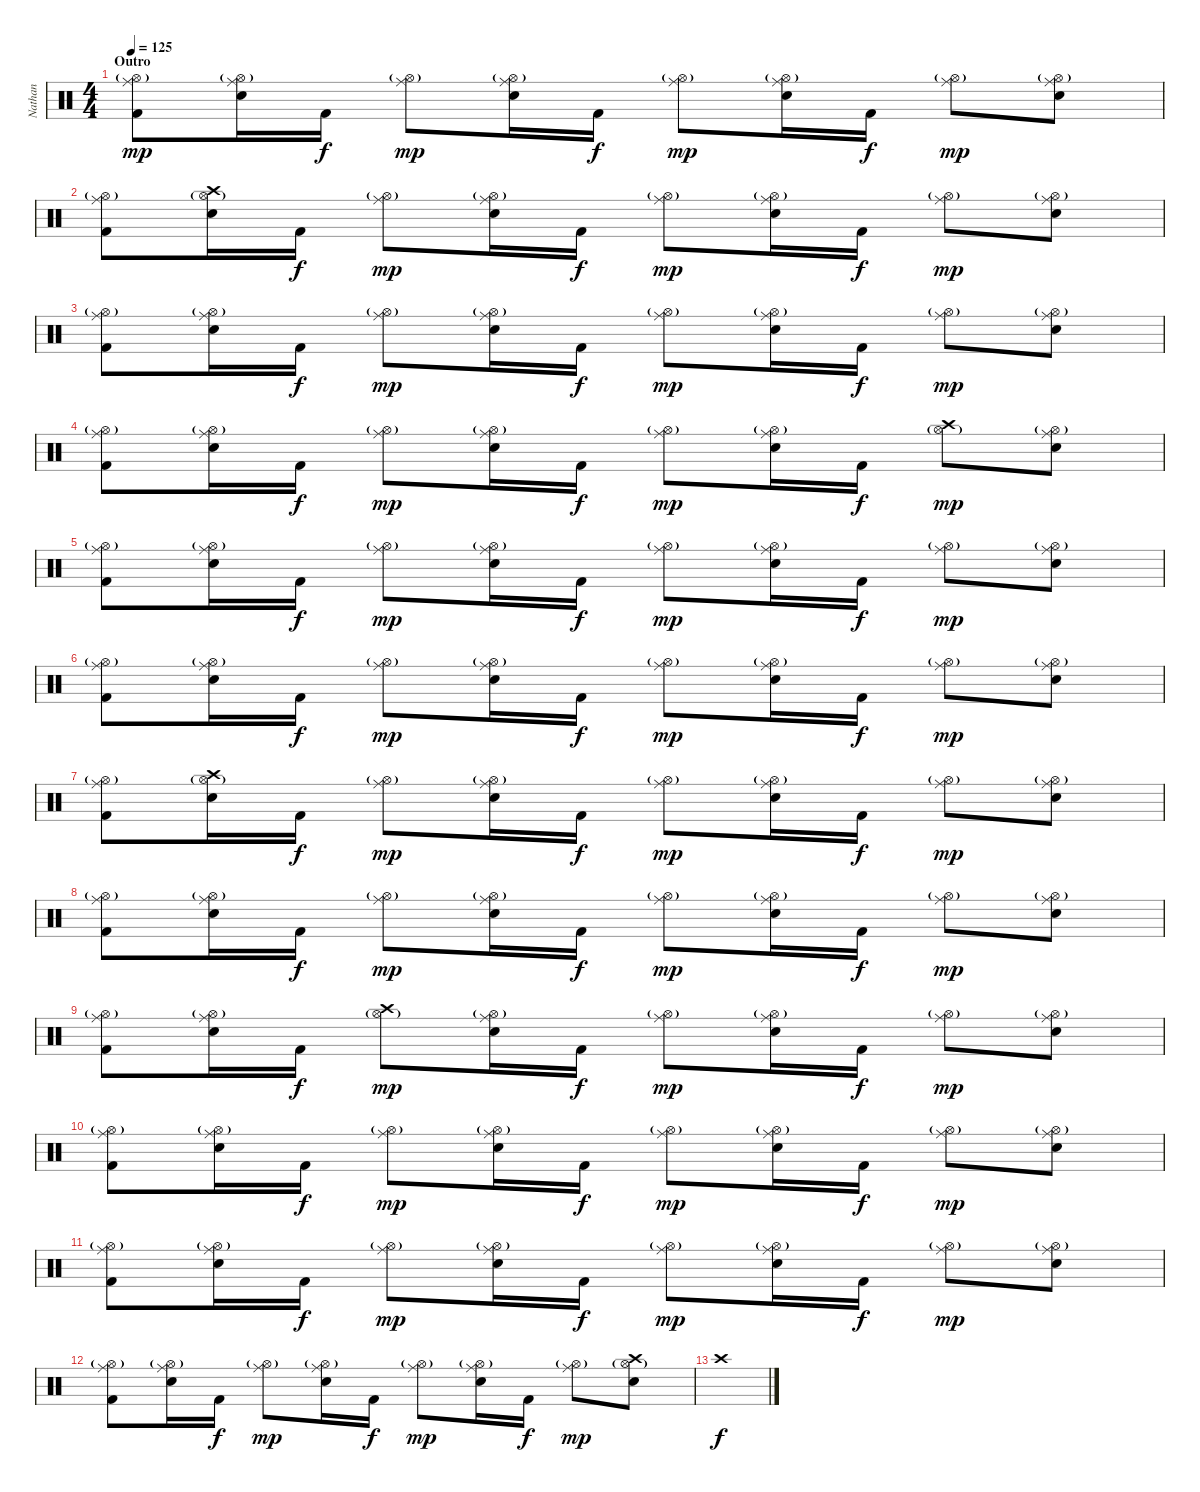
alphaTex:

\track ("Nathan" "Nathan") {instrument percussion}
\staff {score}
\articulation defaults
\ts (4 4)
\section ("" "Outro")
\tempo 125
\clef neutral
\ks c
("Ride (middle)" "Hi-Hat (open)"{g} "Kick (hit) 2").8{dy mp} ("Ride (middle)" "Hi-Hat (open)"{g} "Electric Snare (hit)").16 "Kick (hit) 2".16{dy f} ("Ride (middle)" "Hi-Hat (open)"{g}).8{dy mp} ("Ride (middle)" "Hi-Hat (open)"{g} "Electric Snare (hit)").16 "Kick (hit) 2".16{dy f} ("Ride (middle)" "Hi-Hat (open)"{g}).8{dy mp} ("Ride (middle)" "Hi-Hat (open)"{g} "Electric Snare (hit)").16 "Kick (hit) 2".16{dy f} ("Ride (middle)" "Hi-Hat (open)"{g}).8{dy mp} ("Ride (middle)" "Hi-Hat (open)"{g} "Electric Snare (hit)").8 |
("Ride (middle)" "Hi-Hat (open)"{g} "Kick (hit) 2").8 ("Crash high (hit)" "Hi-Hat (open)"{g} "Electric Snare (hit)").16 "Kick (hit) 2".16{dy f} ("Ride (middle)" "Hi-Hat (open)"{g}).8{dy mp} ("Ride (middle)" "Hi-Hat (open)"{g} "Electric Snare (hit)").16 "Kick (hit) 2".16{dy f} ("Ride (middle)" "Hi-Hat (open)"{g}).8{dy mp} ("Ride (middle)" "Hi-Hat (open)"{g} "Electric Snare (hit)").16 "Kick (hit) 2".16{dy f} ("Ride (middle)" "Hi-Hat (open)"{g}).8{dy mp} ("Ride (middle)" "Hi-Hat (open)"{g} "Electric Snare (hit)").8 |
("Ride (middle)" "Hi-Hat (open)"{g} "Kick (hit) 2").8 ("Ride (middle)" "Hi-Hat (open)"{g} "Electric Snare (hit)").16 "Kick (hit) 2".16{dy f} ("Ride (middle)" "Hi-Hat (open)"{g}).8{dy mp} ("Ride (middle)" "Hi-Hat (open)"{g} "Electric Snare (hit)").16 "Kick (hit) 2".16{dy f} ("Ride (middle)" "Hi-Hat (open)"{g}).8{dy mp} ("Ride (middle)" "Hi-Hat (open)"{g} "Electric Snare (hit)").16 "Kick (hit) 2".16{dy f} ("Ride (middle)" "Hi-Hat (open)"{g}).8{dy mp} ("Ride (middle)" "Hi-Hat (open)"{g} "Electric Snare (hit)").8 |
("Ride (middle)" "Hi-Hat (open)"{g} "Kick (hit) 2").8 ("Ride (middle)" "Hi-Hat (open)"{g} "Electric Snare (hit)").16 "Kick (hit) 2".16{dy f} ("Ride (middle)" "Hi-Hat (open)"{g}).8{dy mp} ("Ride (middle)" "Hi-Hat (open)"{g} "Electric Snare (hit)").16 "Kick (hit) 2".16{dy f} ("Ride (middle)" "Hi-Hat (open)"{g}).8{dy mp} ("Ride (middle)" "Hi-Hat (open)"{g} "Electric Snare (hit)").16 "Kick (hit) 2".16{dy f} ("Crash high (hit)" "Hi-Hat (open)"{g}).8{dy mp} ("Ride (middle)" "Hi-Hat (open)"{g} "Electric Snare (hit)").8 |
("Ride (middle)" "Hi-Hat (open)"{g} "Kick (hit) 2").8 ("Ride (middle)" "Hi-Hat (open)"{g} "Electric Snare (hit)").16 "Kick (hit) 2".16{dy f} ("Ride (middle)" "Hi-Hat (open)"{g}).8{dy mp} ("Ride (middle)" "Hi-Hat (open)"{g} "Electric Snare (hit)").16 "Kick (hit) 2".16{dy f} ("Ride (middle)" "Hi-Hat (open)"{g}).8{dy mp} ("Ride (middle)" "Hi-Hat (open)"{g} "Electric Snare (hit)").16 "Kick (hit) 2".16{dy f} ("Ride (middle)" "Hi-Hat (open)"{g}).8{dy mp} ("Ride (middle)" "Hi-Hat (open)"{g} "Electric Snare (hit)").8 |
("Ride (middle)" "Hi-Hat (open)"{g} "Kick (hit) 2").8 ("Ride (middle)" "Hi-Hat (open)"{g} "Electric Snare (hit)").16 "Kick (hit) 2".16{dy f} ("Ride (middle)" "Hi-Hat (open)"{g}).8{dy mp} ("Ride (middle)" "Hi-Hat (open)"{g} "Electric Snare (hit)").16 "Kick (hit) 2".16{dy f} ("Ride (middle)" "Hi-Hat (open)"{g}).8{dy mp} ("Ride (middle)" "Hi-Hat (open)"{g} "Electric Snare (hit)").16 "Kick (hit) 2".16{dy f} ("Ride (middle)" "Hi-Hat (open)"{g}).8{dy mp} ("Ride (middle)" "Hi-Hat (open)"{g} "Electric Snare (hit)").8 |
("Ride (middle)" "Hi-Hat (open)"{g} "Kick (hit) 2").8 ("Crash high (hit)" "Hi-Hat (open)"{g} "Electric Snare (hit)").16 "Kick (hit) 2".16{dy f} ("Ride (middle)" "Hi-Hat (open)"{g}).8{dy mp} ("Ride (middle)" "Hi-Hat (open)"{g} "Electric Snare (hit)").16 "Kick (hit) 2".16{dy f} ("Ride (middle)" "Hi-Hat (open)"{g}).8{dy mp} ("Ride (middle)" "Hi-Hat (open)"{g} "Electric Snare (hit)").16 "Kick (hit) 2".16{dy f} ("Ride (middle)" "Hi-Hat (open)"{g}).8{dy mp} ("Ride (middle)" "Hi-Hat (open)"{g} "Electric Snare (hit)").8 |
("Ride (middle)" "Hi-Hat (open)"{g} "Kick (hit) 2").8 ("Ride (middle)" "Hi-Hat (open)"{g} "Electric Snare (hit)").16 "Kick (hit) 2".16{dy f} ("Ride (middle)" "Hi-Hat (open)"{g}).8{dy mp} ("Ride (middle)" "Hi-Hat (open)"{g} "Electric Snare (hit)").16 "Kick (hit) 2".16{dy f} ("Ride (middle)" "Hi-Hat (open)"{g}).8{dy mp} ("Ride (middle)" "Hi-Hat (open)"{g} "Electric Snare (hit)").16 "Kick (hit) 2".16{dy f} ("Ride (middle)" "Hi-Hat (open)"{g}).8{dy mp} ("Ride (middle)" "Hi-Hat (open)"{g} "Electric Snare (hit)").8 |
("Ride (middle)" "Hi-Hat (open)"{g} "Kick (hit) 2").8 ("Ride (middle)" "Hi-Hat (open)"{g} "Electric Snare (hit)").16 "Kick (hit) 2".16{dy f} ("Crash high (hit)" "Hi-Hat (open)"{g}).8{dy mp} ("Ride (middle)" "Hi-Hat (open)"{g} "Electric Snare (hit)").16 "Kick (hit) 2".16{dy f} ("Ride (middle)" "Hi-Hat (open)"{g}).8{dy mp} ("Ride (middle)" "Hi-Hat (open)"{g} "Electric Snare (hit)").16 "Kick (hit) 2".16{dy f} ("Ride (middle)" "Hi-Hat (open)"{g}).8{dy mp} ("Ride (middle)" "Hi-Hat (open)"{g} "Electric Snare (hit)").8 |
("Ride (middle)" "Hi-Hat (open)"{g} "Kick (hit) 2").8 ("Ride (middle)" "Hi-Hat (open)"{g} "Electric Snare (hit)").16 "Kick (hit) 2".16{dy f} ("Ride (middle)" "Hi-Hat (open)"{g}).8{dy mp} ("Ride (middle)" "Hi-Hat (open)"{g} "Electric Snare (hit)").16 "Kick (hit) 2".16{dy f} ("Ride (middle)" "Hi-Hat (open)"{g}).8{dy mp} ("Ride (middle)" "Hi-Hat (open)"{g} "Electric Snare (hit)").16 "Kick (hit) 2".16{dy f} ("Ride (middle)" "Hi-Hat (open)"{g}).8{dy mp} ("Ride (middle)" "Hi-Hat (open)"{g} "Electric Snare (hit)").8 |
("Ride (middle)" "Hi-Hat (open)"{g} "Kick (hit) 2").8 ("Ride (middle)" "Hi-Hat (open)"{g} "Electric Snare (hit)").16 "Kick (hit) 2".16{dy f} ("Ride (middle)" "Hi-Hat (open)"{g}).8{dy mp} ("Ride (middle)" "Hi-Hat (open)"{g} "Electric Snare (hit)").16 "Kick (hit) 2".16{dy f} ("Ride (middle)" "Hi-Hat (open)"{g}).8{dy mp} ("Ride (middle)" "Hi-Hat (open)"{g} "Electric Snare (hit)").16 "Kick (hit) 2".16{dy f} ("Ride (middle)" "Hi-Hat (open)"{g}).8{dy mp} ("Ride (middle)" "Hi-Hat (open)"{g} "Electric Snare (hit)").8 |
("Ride (middle)" "Hi-Hat (open)"{g} "Kick (hit) 2").8 ("Ride (middle)" "Hi-Hat (open)"{g} "Electric Snare (hit)").16 "Kick (hit) 2".16{dy f} ("Ride (middle)" "Hi-Hat (open)"{g}).8{dy mp} ("Ride (middle)" "Hi-Hat (open)"{g} "Electric Snare (hit)").16 "Kick (hit) 2".16{dy f} ("Ride (middle)" "Hi-Hat (open)"{g}).8{dy mp} ("Ride (middle)" "Hi-Hat (open)"{g} "Electric Snare (hit)").16 "Kick (hit) 2".16{dy f} ("Ride (middle)" "Hi-Hat (open)"{g}).8{dy mp} ("Crash high (hit)" "Hi-Hat (open)"{g} "Electric Snare (hit)").8 |
"Crash high (hit)".1{dy f}
